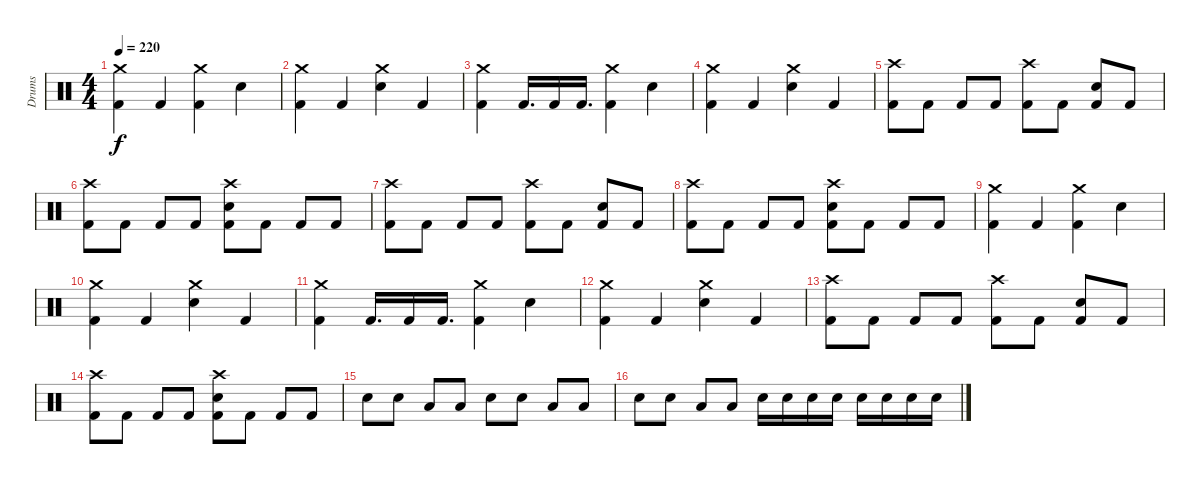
\track ("Drums" "Drums") {instrument percussion}
\staff {score}
\articulation defaults
\ts (4 4)
\tempo 220
\clef neutral
\ks c
("Crash medium (hit)" "Kick (hit) 2").4{dy f} "Kick (hit) 2".4 ("Crash medium (hit)" "Kick (hit) 2").4 "Electric Snare (hit)".4 |
("Crash medium (hit)" "Kick (hit) 2").4 "Kick (hit) 2".4 ("Crash medium (hit)" "Electric Snare (hit)").4 "Kick (hit) 2".4 |
("Crash medium (hit)" "Kick (hit) 2").4 "Kick (hit) 2".16{d} "Kick (hit) 2".16 "Kick (hit) 2".16{d} ("Crash medium (hit)" "Kick (hit) 2").4 "Electric Snare (hit)".4 |
("Crash medium (hit)" "Kick (hit) 2").4 "Kick (hit) 2".4 ("Crash medium (hit)" "Electric Snare (hit)").4 "Kick (hit) 2".4 |
("Crash high (hit)" "Kick (hit) 2").8 "Kick (hit) 2".8 "Kick (hit) 2".8 "Kick (hit) 2".8 ("Crash high (hit)" "Kick (hit) 2").8 "Kick (hit) 2".8 ("Electric Snare (hit)" "Kick (hit) 2").8 "Kick (hit) 2".8 |
("Crash high (hit)" "Kick (hit) 2").8 "Kick (hit) 2".8 "Kick (hit) 2".8 "Kick (hit) 2".8 ("Crash high (hit)" "Electric Snare (hit)" "Kick (hit) 2").8 "Kick (hit) 2".8 "Kick (hit) 2".8 "Kick (hit) 2".8 |
("Crash high (hit)" "Kick (hit) 2").8 "Kick (hit) 2".8 "Kick (hit) 2".8 "Kick (hit) 2".8 ("Crash high (hit)" "Kick (hit) 2").8 "Kick (hit) 2".8 ("Electric Snare (hit)" "Kick (hit) 2").8 "Kick (hit) 2".8 |
("Crash high (hit)" "Kick (hit) 2").8 "Kick (hit) 2".8 "Kick (hit) 2".8 "Kick (hit) 2".8 ("Crash high (hit)" "Electric Snare (hit)" "Kick (hit) 2").8 "Kick (hit) 2".8 "Kick (hit) 2".8 "Kick (hit) 2".8 |
("Crash medium (hit)" "Kick (hit) 2").4 "Kick (hit) 2".4 ("Crash medium (hit)" "Kick (hit) 2").4 "Electric Snare (hit)".4 |
("Crash medium (hit)" "Kick (hit) 2").4 "Kick (hit) 2".4 ("Crash medium (hit)" "Electric Snare (hit)").4 "Kick (hit) 2".4 |
("Crash medium (hit)" "Kick (hit) 2").4 "Kick (hit) 2".16{d} "Kick (hit) 2".16 "Kick (hit) 2".16{d} ("Crash medium (hit)" "Kick (hit) 2").4 "Electric Snare (hit)".4 |
("Crash medium (hit)" "Kick (hit) 2").4 "Kick (hit) 2".4 ("Crash medium (hit)" "Electric Snare (hit)").4 "Kick (hit) 2".4 |
("Crash high (hit)" "Kick (hit) 2").8 "Kick (hit) 2".8 "Kick (hit) 2".8 "Kick (hit) 2".8 ("Crash high (hit)" "Kick (hit) 2").8 "Kick (hit) 2".8 ("Electric Snare (hit)" "Kick (hit) 2").8 "Kick (hit) 2".8 |
("Crash high (hit)" "Kick (hit) 2").8 "Kick (hit) 2".8 "Kick (hit) 2".8 "Kick (hit) 2".8 ("Crash high (hit)" "Electric Snare (hit)" "Kick (hit) 2").8 "Kick (hit) 2".8 "Kick (hit) 2".8 "Kick (hit) 2".8 |
"Electric Snare (hit)".8 "Electric Snare (hit)".8 "Low Tom (hit)".8 "Low Tom (hit)".8 "Electric Snare (hit)".8 "Electric Snare (hit)".8 "Low Tom (hit)".8 "Low Tom (hit)".8 |
"Electric Snare (hit)".8 "Electric Snare (hit)".8 "Low Tom (hit)".8 "Low Tom (hit)".8 "Electric Snare (hit)".16 "Electric Snare (hit)".16 "Electric Snare (hit)".16 "Electric Snare (hit)".16 "Electric Snare (hit)".16 "Electric Snare (hit)".16 "Electric Snare (hit)".16 "Electric Snare (hit)".16
